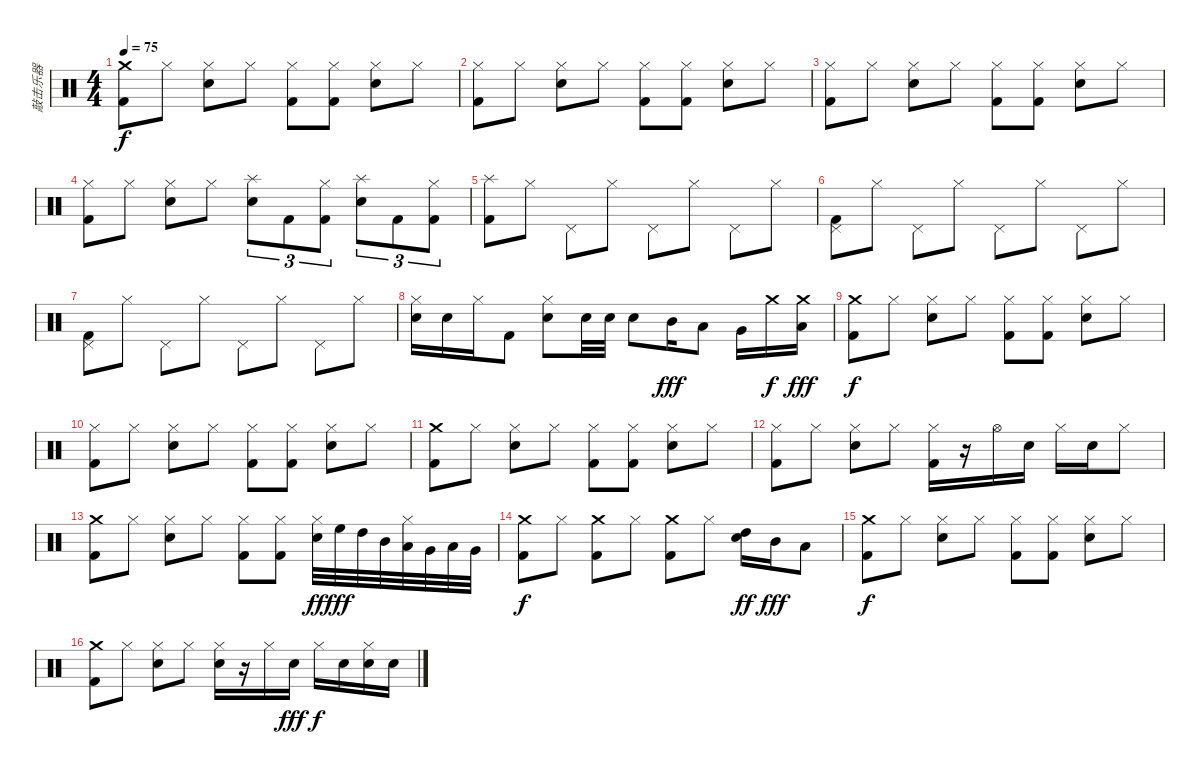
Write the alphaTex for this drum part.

\track ("敲击乐器" "敲击乐器") {instrument percussion}
\staff {score}
\articulation defaults
\ts (4 4)
\tempo 75
\clef neutral
\ks c
("Crash medium (hit)" "Kick (hit) 2").8{dy f} "Hi-Hat (closed)".8 ("Hi-Hat (closed)" "Electric Snare (hit)").8 "Hi-Hat (closed)".8 ("Hi-Hat (closed)" "Kick (hit) 2").8 ("Hi-Hat (closed)" "Kick (hit) 2").8 ("Hi-Hat (closed)" "Electric Snare (hit)").8 "Hi-Hat (closed)".8 |
("Hi-Hat (closed)" "Kick (hit) 2").8 "Hi-Hat (closed)".8 ("Hi-Hat (closed)" "Electric Snare (hit)").8 "Hi-Hat (closed)".8 ("Hi-Hat (closed)" "Kick (hit) 2").8 ("Hi-Hat (closed)" "Kick (hit) 2").8 ("Hi-Hat (closed)" "Electric Snare (hit)").8 "Hi-Hat (closed)".8 |
("Hi-Hat (closed)" "Kick (hit) 2").8 "Hi-Hat (closed)".8 ("Hi-Hat (closed)" "Electric Snare (hit)").8 "Hi-Hat (closed)".8 ("Hi-Hat (closed)" "Kick (hit) 2").8 ("Hi-Hat (closed)" "Kick (hit) 2").8 ("Hi-Hat (closed)" "Electric Snare (hit)").8 "Hi-Hat (closed)".8 |
("Hi-Hat (closed)" "Kick (hit) 2").8 "Hi-Hat (closed)".8 ("Hi-Hat (closed)" "Electric Snare (hit)").8 "Hi-Hat (closed)".8 ("Splash (hit)" "Electric Snare (hit)").8{tu (3 2)} "Kick (hit) 2".8{tu (3 2)} ("Hi-Hat (closed)" "Kick (hit) 2").8{tu (3 2)} ("Splash (hit)" "Electric Snare (hit)").8{tu (3 2)} "Kick (hit) 2".8{tu (3 2)} ("Hi-Hat (closed)" "Kick (hit) 2").8{tu (3 2)} |
("Splash (hit)" "Kick (hit) 2").8 "Hi-Hat (closed)".8 "Pedal Hi-Hat (hit)".8 "Hi-Hat (closed)".8 "Pedal Hi-Hat (hit)".8 "Hi-Hat (closed)".8 "Pedal Hi-Hat (hit)".8 "Hi-Hat (closed)".8 |
("Pedal Hi-Hat (hit)" "Kick (hit) 2").8 "Hi-Hat (closed)".8 "Pedal Hi-Hat (hit)".8 "Hi-Hat (closed)".8 "Pedal Hi-Hat (hit)".8 "Hi-Hat (closed)".8 "Pedal Hi-Hat (hit)".8 "Hi-Hat (closed)".8 |
("Pedal Hi-Hat (hit)" "Kick (hit) 2").8 "Hi-Hat (closed)".8 "Pedal Hi-Hat (hit)".8 "Hi-Hat (closed)".8 "Pedal Hi-Hat (hit)".8 "Hi-Hat (closed)".8 "Pedal Hi-Hat (hit)".8 "Hi-Hat (closed)".8 |
("Hi-Hat (closed)" "Electric Snare (hit)").16 "Electric Snare (hit)".16 "Hi-Hat (closed)".16 "Kick (hit) 2".8 ("Hi-Hat (closed)" "Electric Snare (hit)").8 "Electric Snare (hit)".32 "Electric Snare (hit)".32 "Electric Snare (hit)".8 "Mid Tom (hit)".16{dy fff} "Low Tom (hit)".8 "Very Low Tom (hit)".16 "Crash medium (hit)".16{dy f} ("Crash medium (hit)" "Low Floor Tom (hit)").16{dy fff} |
("Crash medium (hit)" "Kick (hit) 2").8{dy f} "Hi-Hat (closed)".8 ("Hi-Hat (closed)" "Electric Snare (hit)").8 "Hi-Hat (closed)".8 ("Hi-Hat (closed)" "Kick (hit) 2").8 ("Hi-Hat (closed)" "Kick (hit) 2").8 ("Hi-Hat (closed)" "Electric Snare (hit)").8 "Hi-Hat (closed)".8 |
("Hi-Hat (closed)" "Kick (hit) 2").8 "Hi-Hat (closed)".8 ("Hi-Hat (closed)" "Electric Snare (hit)").8 "Hi-Hat (closed)".8 ("Hi-Hat (closed)" "Kick (hit) 2").8 ("Hi-Hat (closed)" "Kick (hit) 2").8 ("Hi-Hat (closed)" "Electric Snare (hit)").8 "Hi-Hat (closed)".8 |
("Crash medium (hit)" "Kick (hit) 2").8 "Hi-Hat (closed)".8 ("Hi-Hat (closed)" "Electric Snare (hit)").8 "Hi-Hat (closed)".8 ("Hi-Hat (closed)" "Kick (hit) 2").8 ("Hi-Hat (closed)" "Kick (hit) 2").8 ("Hi-Hat (closed)" "Electric Snare (hit)").8 "Hi-Hat (closed)".8 |
("Hi-Hat (closed)" "Kick (hit) 2").8 "Hi-Hat (closed)".8 ("Hi-Hat (closed)" "Electric Snare (hit)").8 "Hi-Hat (closed)".8 ("Hi-Hat (closed)" "Kick (hit) 2").16 r.16 "Hi-Hat (open)".16 "Electric Snare (hit)".16 "Hi-Hat (closed)".16 "Electric Snare (hit)".16 "Hi-Hat (closed)".8 |
("Crash medium (hit)" "Kick (hit) 2").8 "Hi-Hat (closed)".8 ("Hi-Hat (closed)" "Electric Snare (hit)").8 "Hi-Hat (closed)".8 ("Hi-Hat (closed)" "Kick (hit) 2").8 ("Hi-Hat (closed)" "Kick (hit) 2").8 ("Hi-Hat (closed)" "Electric Snare (hit)").32{dy ff} "High Floor Tom (hit)".32{dy fff} "High Tom (hit)".32 "Mid Tom (hit)".32 ("Hi-Hat (closed)" "Low Tom (hit)").32 "Very Low Tom (hit)".32 "Low Floor Tom (hit)".32 "Very Low Tom (hit)".32 |
("Crash medium (hit)" "Kick (hit) 2").8{dy f} "Hi-Hat (closed)".8 ("Crash medium (hit)" "Kick (hit) 2").8 "Hi-Hat (closed)".8 ("Crash medium (hit)" "Kick (hit) 2").8 "Hi-Hat (closed)".8 ("High Tom (hit)" "Electric Snare (hit)").16{dy ff} "Mid Tom (hit)".16{dy fff} "Low Tom (hit)".8 |
("Crash medium (hit)" "Kick (hit) 2").8{dy f} "Hi-Hat (closed)".8 ("Hi-Hat (closed)" "Electric Snare (hit)").8 "Hi-Hat (closed)".8 ("Hi-Hat (closed)" "Kick (hit) 2").8 ("Hi-Hat (closed)" "Kick (hit) 2").8 ("Hi-Hat (closed)" "Electric Snare (hit)").8 "Hi-Hat (closed)".8 |
("Crash medium (hit)" "Kick (hit) 2").8 "Hi-Hat (closed)".8 ("Hi-Hat (closed)" "Electric Snare (hit)").8 "Hi-Hat (closed)".8 ("Hi-Hat (closed)" "Electric Snare (hit)").16 r.16 "Hi-Hat (closed)".16 "Electric Snare (hit)".16{dy fff} "Hi-Hat (closed)".16{dy f} "Electric Snare (hit)".16 ("Hi-Hat (closed)" "Electric Snare (hit)").16 "Electric Snare (hit)".16
